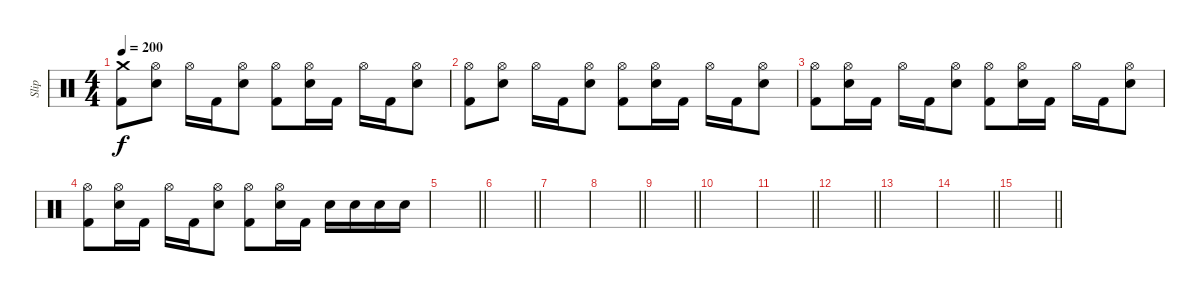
\track ("Slip" "Slip") {instrument percussion}
\staff {score}
\articulation defaults
\ts (4 4)
\tempo 200
\clef neutral
\ks c
("Kick (hit) 2" "Crash medium (hit)").8{dy f} ("Electric Snare (hit)" "Hi-Hat (open)").8 "Hi-Hat (open)".16 "Kick (hit) 2".16 ("Electric Snare (hit)" "Hi-Hat (open)").8 ("Kick (hit) 2" "Hi-Hat (open)").8 ("Electric Snare (hit)" "Hi-Hat (open)").16 "Kick (hit) 2".16 "Hi-Hat (open)".16 "Kick (hit) 2".16 ("Electric Snare (hit)" "Hi-Hat (open)").8 |
("Kick (hit) 2" "Hi-Hat (open)").8 ("Electric Snare (hit)" "Hi-Hat (open)").8 "Hi-Hat (open)".16 "Kick (hit) 2".16 ("Electric Snare (hit)" "Hi-Hat (open)").8 ("Kick (hit) 2" "Hi-Hat (open)").8 ("Electric Snare (hit)" "Hi-Hat (open)").16 "Kick (hit) 2".16 "Hi-Hat (open)".16 "Kick (hit) 2".16 ("Electric Snare (hit)" "Hi-Hat (open)").8 |
("Kick (hit) 2" "Hi-Hat (open)").8 ("Electric Snare (hit)" "Hi-Hat (open)").16 "Kick (hit) 2".16 "Hi-Hat (open)".16 "Kick (hit) 2".16 ("Electric Snare (hit)" "Hi-Hat (open)").8 ("Kick (hit) 2" "Hi-Hat (open)").8 ("Electric Snare (hit)" "Hi-Hat (open)").16 "Kick (hit) 2".16 "Hi-Hat (open)".16 "Kick (hit) 2".16 ("Electric Snare (hit)" "Hi-Hat (open)").8 |
("Kick (hit) 2" "Hi-Hat (open)").8 ("Electric Snare (hit)" "Hi-Hat (open)").16 "Kick (hit) 2".16 "Hi-Hat (open)".16 "Kick (hit) 2".16 ("Electric Snare (hit)" "Hi-Hat (open)").8 ("Kick (hit) 2" "Hi-Hat (open)").8 ("Electric Snare (hit)" "Hi-Hat (open)").16 "Kick (hit) 2".16 "Electric Snare (hit)".16 "Electric Snare (hit)".16 "Electric Snare (hit)".16 "Electric Snare (hit)".16 |
\barLineRight lightlight
|
\barLineRight lightlight
|
|
\barLineRight lightlight
|
\barLineRight lightlight
|
|
\barLineRight lightlight
|
\barLineRight lightlight
|
|
\barLineRight lightlight
|
\barLineRight lightlight
